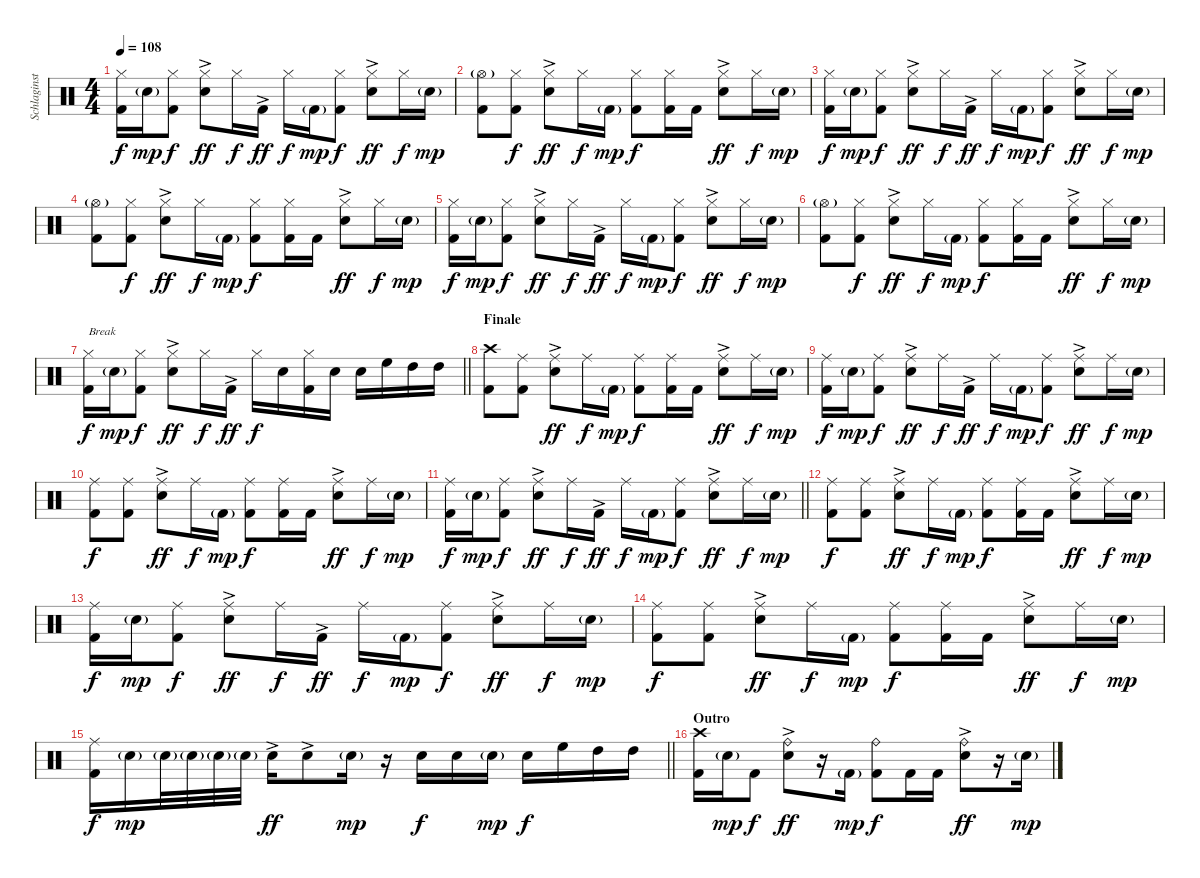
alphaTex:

\track ("Schlaginstrumente - Auswahl" "Schlaginst") {instrument percussion}
\staff {score}
\articulation defaults
\ts (4 4)
\tempo 108
\clef neutral
\ks c
("Hi-Hat (closed)" "Kick (hit) 2").16{dy f} "Snare (hit) 2"{g}.16{dy mp} ("Hi-Hat (closed)" "Kick (hit) 2").8{dy f} ("Hi-Hat (closed)" "Snare (hit) 2"{ac}).8{dy ff} "Hi-Hat (closed)".16{dy f} "Kick (hit) 2"{ac}.16{dy ff} "Hi-Hat (closed)".16{dy f} "Kick (hit) 2"{g}.16{dy mp} ("Hi-Hat (closed)" "Kick (hit) 2").8{dy f} ("Hi-Hat (closed)" "Snare (hit) 2"{ac}).8{dy ff} "Hi-Hat (closed)".16{dy f} "Snare (hit) 2"{g}.16{dy mp} |
("Hi-Hat (open)"{g} "Kick (hit) 2").8 ("Hi-Hat (closed)" "Kick (hit) 2").8{dy f} ("Hi-Hat (closed)" "Snare (hit) 2"{ac}).8{dy ff} "Hi-Hat (closed)".16{dy f} "Kick (hit) 2"{g}.16{dy mp} ("Hi-Hat (closed)" "Kick (hit) 2").8{dy f} ("Hi-Hat (closed)" "Kick (hit) 2").16 "Kick (hit) 2".16 ("Hi-Hat (closed)" "Snare (hit) 2"{ac}).8{dy ff} "Hi-Hat (closed)".16{dy f} "Snare (hit) 2"{g}.16{dy mp} |
("Hi-Hat (closed)" "Kick (hit) 2").16{dy f} "Snare (hit) 2"{g}.16{dy mp} ("Hi-Hat (closed)" "Kick (hit) 2").8{dy f} ("Hi-Hat (closed)" "Snare (hit) 2"{ac}).8{dy ff} "Hi-Hat (closed)".16{dy f} "Kick (hit) 2"{ac}.16{dy ff} "Hi-Hat (closed)".16{dy f} "Kick (hit) 2"{g}.16{dy mp} ("Hi-Hat (closed)" "Kick (hit) 2").8{dy f} ("Hi-Hat (closed)" "Snare (hit) 2"{ac}).8{dy ff} "Hi-Hat (closed)".16{dy f} "Snare (hit) 2"{g}.16{dy mp} |
("Hi-Hat (open)"{g} "Kick (hit) 2").8 ("Hi-Hat (closed)" "Kick (hit) 2").8{dy f} ("Hi-Hat (closed)" "Snare (hit) 2"{ac}).8{dy ff} "Hi-Hat (closed)".16{dy f} "Kick (hit) 2"{g}.16{dy mp} ("Hi-Hat (closed)" "Kick (hit) 2").8{dy f} ("Hi-Hat (closed)" "Kick (hit) 2").16 "Kick (hit) 2".16 ("Hi-Hat (closed)" "Snare (hit) 2"{ac}).8{dy ff} "Hi-Hat (closed)".16{dy f} "Snare (hit) 2"{g}.16{dy mp} |
("Hi-Hat (closed)" "Kick (hit) 2").16{dy f} "Snare (hit) 2"{g}.16{dy mp} ("Hi-Hat (closed)" "Kick (hit) 2").8{dy f} ("Hi-Hat (closed)" "Snare (hit) 2"{ac}).8{dy ff} "Hi-Hat (closed)".16{dy f} "Kick (hit) 2"{ac}.16{dy ff} "Hi-Hat (closed)".16{dy f} "Kick (hit) 2"{g}.16{dy mp} ("Hi-Hat (closed)" "Kick (hit) 2").8{dy f} ("Hi-Hat (closed)" "Snare (hit) 2"{ac}).8{dy ff} "Hi-Hat (closed)".16{dy f} "Snare (hit) 2"{g}.16{dy mp} |
("Hi-Hat (open)"{g} "Kick (hit) 2").8 ("Hi-Hat (closed)" "Kick (hit) 2").8{dy f} ("Hi-Hat (closed)" "Snare (hit) 2"{ac}).8{dy ff} "Hi-Hat (closed)".16{dy f} "Kick (hit) 2"{g}.16{dy mp} ("Hi-Hat (closed)" "Kick (hit) 2").8{dy f} ("Hi-Hat (closed)" "Kick (hit) 2").16 "Kick (hit) 2".16 ("Hi-Hat (closed)" "Snare (hit) 2"{ac}).8{dy ff} "Hi-Hat (closed)".16{dy f} "Snare (hit) 2"{g}.16{dy mp} |
\barLineRight lightlight
("Hi-Hat (closed)" "Kick (hit) 2").16{txt "Break" dy f} "Snare (hit) 2"{g}.16{dy mp} ("Hi-Hat (closed)" "Kick (hit) 2").8{dy f} ("Hi-Hat (closed)" "Snare (hit) 2"{ac}).8{dy ff} "Hi-Hat (closed)".16{dy f} "Kick (hit) 2"{ac}.16{dy ff} "Hi-Hat (closed)".16{dy f} "Snare (hit) 2".16 ("Hi-Hat (closed)" "Kick (hit) 2").16 "Snare (hit) 2".16 "Snare (hit) 2".16 "High Floor Tom (hit)".16 "High Tom (hit)".16 "High Tom (hit)".16 |
\section ("" "Finale")
("Crash high (hit)" "Kick (hit) 2").8 ("Ride (middle)" "Kick (hit) 2").8 ("Ride (middle)" "Snare (hit) 2"{ac}).8{dy ff} "Ride (middle)".16{dy f} "Kick (hit) 2"{g}.16{dy mp} ("Ride (middle)" "Kick (hit) 2").8{dy f} ("Ride (middle)" "Kick (hit) 2").16 "Kick (hit) 2".16 ("Ride (middle)" "Snare (hit) 2"{ac}).8{dy ff} "Ride (middle)".16{dy f} "Snare (hit) 2"{g}.16{dy mp} |
("Ride (middle)" "Kick (hit) 2").16{dy f} "Snare (hit) 2"{g}.16{dy mp} ("Ride (middle)" "Kick (hit) 2").8{dy f} ("Ride (middle)" "Snare (hit) 2"{ac}).8{dy ff} "Ride (middle)".16{dy f} "Kick (hit) 2"{ac}.16{dy ff} "Ride (middle)".16{dy f} "Kick (hit) 2"{g}.16{dy mp} ("Ride (middle)" "Kick (hit) 2").8{dy f} ("Ride (middle)" "Snare (hit) 2"{ac}).8{dy ff} "Ride (middle)".16{dy f} "Snare (hit) 2"{g}.16{dy mp} |
("Ride (middle)" "Kick (hit) 2").8{dy f} ("Ride (middle)" "Kick (hit) 2").8 ("Ride (middle)" "Snare (hit) 2"{ac}).8{dy ff} "Ride (middle)".16{dy f} "Kick (hit) 2"{g}.16{dy mp} ("Ride (middle)" "Kick (hit) 2").8{dy f} ("Ride (middle)" "Kick (hit) 2").16 "Kick (hit) 2".16 ("Ride (middle)" "Snare (hit) 2"{ac}).8{dy ff} "Ride (middle)".16{dy f} "Snare (hit) 2"{g}.16{dy mp} |
\barLineRight lightlight
("Ride (middle)" "Kick (hit) 2").16{dy f} "Snare (hit) 2"{g}.16{dy mp} ("Ride (middle)" "Kick (hit) 2").8{dy f} ("Ride (middle)" "Snare (hit) 2"{ac}).8{dy ff} "Ride (middle)".16{dy f} "Kick (hit) 2"{ac}.16{dy ff} "Ride (middle)".16{dy f} "Kick (hit) 2"{g}.16{dy mp} ("Ride (middle)" "Kick (hit) 2").8{dy f} ("Ride (middle)" "Snare (hit) 2"{ac}).8{dy ff} "Ride (middle)".16{dy f} "Snare (hit) 2"{g}.16{dy mp} |
("Ride (middle)" "Kick (hit) 2").8{dy f} ("Ride (middle)" "Kick (hit) 2").8 ("Ride (middle)" "Snare (hit) 2"{ac}).8{dy ff} "Ride (middle)".16{dy f} "Kick (hit) 2"{g}.16{dy mp} ("Ride (middle)" "Kick (hit) 2").8{dy f} ("Ride (middle)" "Kick (hit) 2").16 "Kick (hit) 2".16 ("Ride (middle)" "Snare (hit) 2"{ac}).8{dy ff} "Ride (middle)".16{dy f} "Snare (hit) 2"{g}.16{dy mp} |
("Ride (middle)" "Kick (hit) 2").16{dy f} "Snare (hit) 2"{g}.16{dy mp} ("Ride (middle)" "Kick (hit) 2").8{dy f} ("Ride (middle)" "Snare (hit) 2"{ac}).8{dy ff} "Ride (middle)".16{dy f} "Kick (hit) 2"{ac}.16{dy ff} "Ride (middle)".16{dy f} "Kick (hit) 2"{g}.16{dy mp} ("Ride (middle)" "Kick (hit) 2").8{dy f} ("Ride (middle)" "Snare (hit) 2"{ac}).8{dy ff} "Ride (middle)".16{dy f} "Snare (hit) 2"{g}.16{dy mp} |
("Ride (middle)" "Kick (hit) 2").8{dy f} ("Ride (middle)" "Kick (hit) 2").8 ("Ride (middle)" "Snare (hit) 2"{ac}).8{dy ff} "Ride (middle)".16{dy f} "Kick (hit) 2"{g}.16{dy mp} ("Ride (middle)" "Kick (hit) 2").8{dy f} ("Ride (middle)" "Kick (hit) 2").16 "Kick (hit) 2".16 ("Ride (middle)" "Snare (hit) 2"{ac}).8{dy ff} "Ride (middle)".16{dy f} "Snare (hit) 2"{g}.16{dy mp} |
\barLineRight lightlight
("Ride (middle)" "Kick (hit) 2").16{dy f} "Snare (hit) 2"{g}.16{dy mp} "Snare (hit) 2"{g}.32 "Snare (hit) 2"{g}.32 "Snare (hit) 2"{g}.32 "Snare (hit) 2"{g}.32 "Snare (hit) 2"{ac}.16{dy ff} "Snare (hit) 2"{ac}.8 "Snare (hit) 2"{g}.16{dy mp} r.16 "Snare (hit) 2".16{dy f} "Snare (hit) 2".16 "Snare (hit) 2"{g}.16{dy mp} "Snare (hit) 2".16{dy f} "High Floor Tom (hit)".16 "High Tom (hit)".16 "High Tom (hit)".16 |
\section ("" "Outro")
("Crash high (hit)" "Kick (hit) 2").16 "Snare (hit) 2"{g}.16{dy mp} "Kick (hit) 2".8{dy f} ("Ride (bell)" "Snare (hit) 2"{ac}).8{dy ff} r.16 "Kick (hit) 2"{g}.16{dy mp} ("Ride (bell)" "Kick (hit) 2").8{dy f} "Kick (hit) 2".16 "Kick (hit) 2".16 ("Ride (bell)" "Snare (hit) 2"{ac}).8{dy ff} r.16 "Snare (hit) 2"{g}.16{dy mp}
